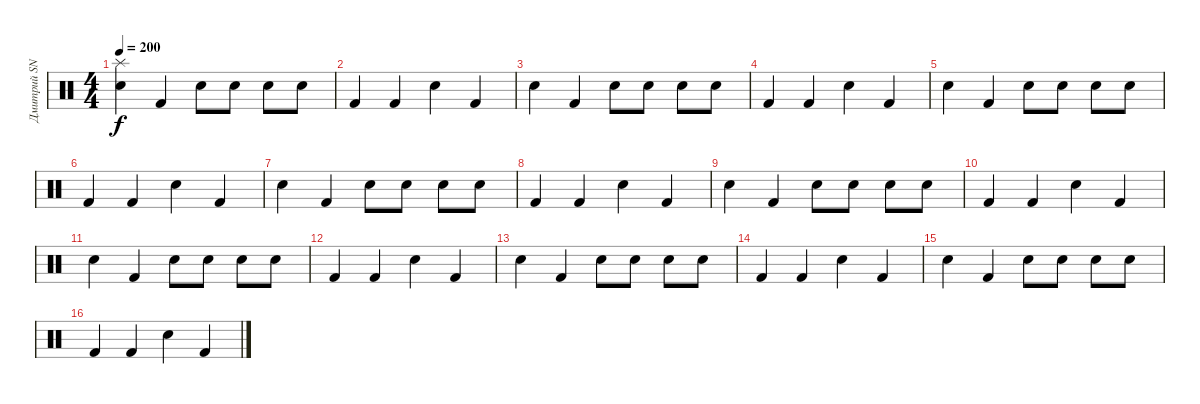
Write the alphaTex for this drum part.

\track ("Дмитрий SNAKE Хакимов" "Дмитрий SN") {instrument percussion}
\staff {score}
\articulation defaults
\ts (4 4)
\tempo 200
\clef neutral
\ks c
("Splash (hit)" "Electric Snare (hit)").4{dy f} "Kick (hit) 2".4 "Electric Snare (hit)".8 "Electric Snare (hit)".8 "Electric Snare (hit)".8 "Electric Snare (hit)".8 |
"Kick (hit) 2".4 "Kick (hit) 2".4 "Electric Snare (hit)".4 "Kick (hit) 2".4 |
"Electric Snare (hit)".4 "Kick (hit) 2".4 "Electric Snare (hit)".8 "Electric Snare (hit)".8 "Electric Snare (hit)".8 "Electric Snare (hit)".8 |
"Kick (hit) 2".4 "Kick (hit) 2".4 "Electric Snare (hit)".4 "Kick (hit) 2".4 |
"Electric Snare (hit)".4 "Kick (hit) 2".4 "Electric Snare (hit)".8 "Electric Snare (hit)".8 "Electric Snare (hit)".8 "Electric Snare (hit)".8 |
"Kick (hit) 2".4 "Kick (hit) 2".4 "Electric Snare (hit)".4 "Kick (hit) 2".4 |
"Electric Snare (hit)".4 "Kick (hit) 2".4 "Electric Snare (hit)".8 "Electric Snare (hit)".8 "Electric Snare (hit)".8 "Electric Snare (hit)".8 |
"Kick (hit) 2".4 "Kick (hit) 2".4 "Electric Snare (hit)".4 "Kick (hit) 2".4 |
"Electric Snare (hit)".4 "Kick (hit) 2".4 "Electric Snare (hit)".8 "Electric Snare (hit)".8 "Electric Snare (hit)".8 "Electric Snare (hit)".8 |
"Kick (hit) 2".4 "Kick (hit) 2".4 "Electric Snare (hit)".4 "Kick (hit) 2".4 |
"Electric Snare (hit)".4 "Kick (hit) 2".4 "Electric Snare (hit)".8 "Electric Snare (hit)".8 "Electric Snare (hit)".8 "Electric Snare (hit)".8 |
"Kick (hit) 2".4 "Kick (hit) 2".4 "Electric Snare (hit)".4 "Kick (hit) 2".4 |
"Electric Snare (hit)".4 "Kick (hit) 2".4 "Electric Snare (hit)".8 "Electric Snare (hit)".8 "Electric Snare (hit)".8 "Electric Snare (hit)".8 |
"Kick (hit) 2".4 "Kick (hit) 2".4 "Electric Snare (hit)".4 "Kick (hit) 2".4 |
"Electric Snare (hit)".4 "Kick (hit) 2".4 "Electric Snare (hit)".8 "Electric Snare (hit)".8 "Electric Snare (hit)".8 "Electric Snare (hit)".8 |
"Kick (hit) 2".4 "Kick (hit) 2".4 "Electric Snare (hit)".4 "Kick (hit) 2".4
